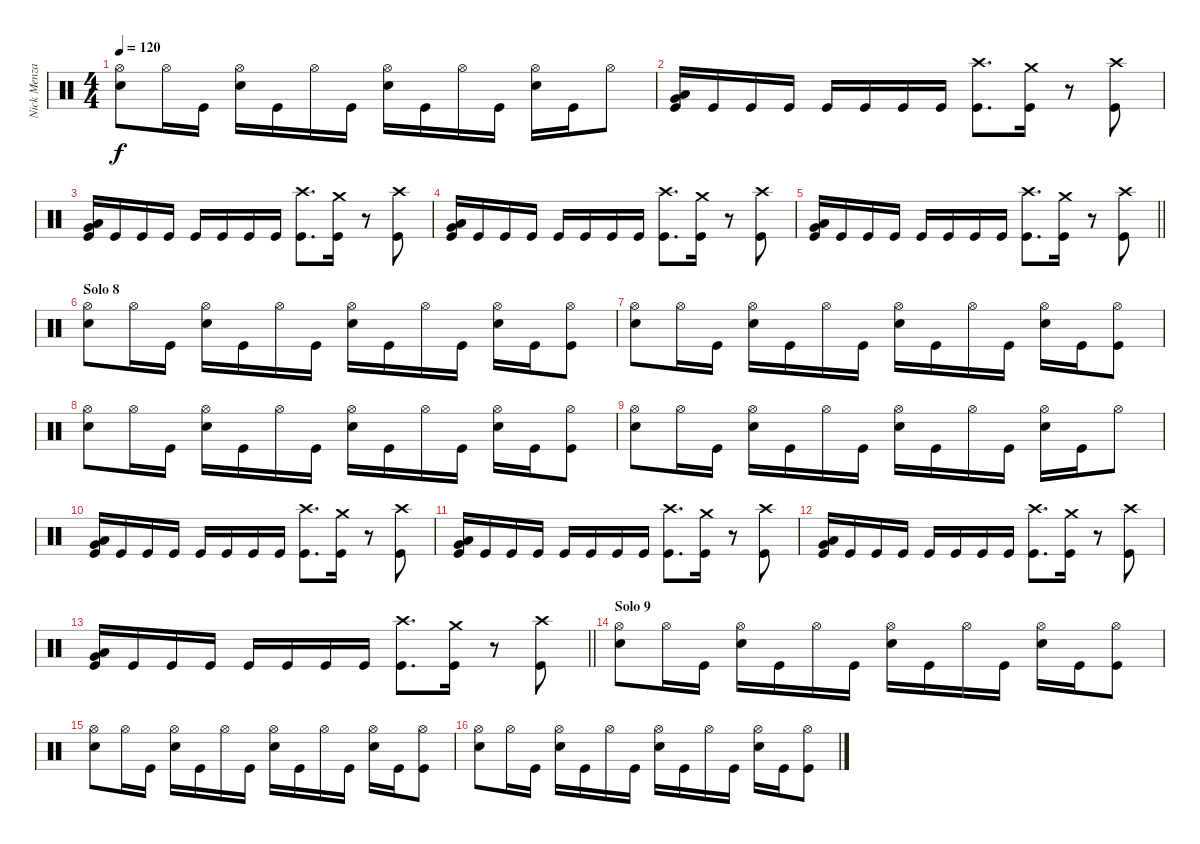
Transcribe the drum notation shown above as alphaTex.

\track ("Nick Menza" "Nick Menza") {instrument percussion}
\staff {score}
\articulation defaults
\ts (4 4)
\tempo 120
\clef neutral
\ks c
("Hi-Hat (open)" "Snare (hit) 2").8{dy f} "Hi-Hat (open)".16 "Kick (hit)".16 ("Hi-Hat (open)" "Snare (hit) 2").16 "Kick (hit)".16 "Hi-Hat (open)".16 "Kick (hit)".16 ("Hi-Hat (open)" "Snare (hit) 2").16 "Kick (hit)".16 "Hi-Hat (open)".16 "Kick (hit)".16 ("Hi-Hat (open)" "Snare (hit) 2").16 "Kick (hit)".16 "Hi-Hat (open)".8 |
("Very Low Tom (hit)" "Low Floor Tom (hit)" "Kick (hit)").16 "Kick (hit)".16 "Kick (hit)".16 "Kick (hit)".16 "Kick (hit)".16 "Kick (hit)".16 "Kick (hit)".16 "Kick (hit)".16 ("Crash high (hit)" "Kick (hit)").8{d} ("Crash medium (hit)" "Kick (hit)").16 r.8 ("Crash high (hit)" "Kick (hit)").8 |
("Very Low Tom (hit)" "Low Floor Tom (hit)" "Kick (hit)").16 "Kick (hit)".16 "Kick (hit)".16 "Kick (hit)".16 "Kick (hit)".16 "Kick (hit)".16 "Kick (hit)".16 "Kick (hit)".16 ("Crash high (hit)" "Kick (hit)").8{d} ("Crash medium (hit)" "Kick (hit)").16 r.8 ("Crash high (hit)" "Kick (hit)").8 |
("Very Low Tom (hit)" "Low Floor Tom (hit)" "Kick (hit)").16 "Kick (hit)".16 "Kick (hit)".16 "Kick (hit)".16 "Kick (hit)".16 "Kick (hit)".16 "Kick (hit)".16 "Kick (hit)".16 ("Crash high (hit)" "Kick (hit)").8{d} ("Crash medium (hit)" "Kick (hit)").16 r.8 ("Crash high (hit)" "Kick (hit)").8 |
\barLineRight lightlight
("Very Low Tom (hit)" "Low Floor Tom (hit)" "Kick (hit)").16 "Kick (hit)".16 "Kick (hit)".16 "Kick (hit)".16 "Kick (hit)".16 "Kick (hit)".16 "Kick (hit)".16 "Kick (hit)".16 ("Crash high (hit)" "Kick (hit)").8{d} ("Crash medium (hit)" "Kick (hit)").16 r.8 ("Crash high (hit)" "Kick (hit)").8 |
\section ("" "Solo 8")
("Hi-Hat (open)" "Snare (hit) 2").8 "Hi-Hat (open)".16 "Kick (hit)".16 ("Hi-Hat (open)" "Snare (hit) 2").16 "Kick (hit)".16 "Hi-Hat (open)".16 "Kick (hit)".16 ("Hi-Hat (open)" "Snare (hit) 2").16 "Kick (hit)".16 "Hi-Hat (open)".16 "Kick (hit)".16 ("Hi-Hat (open)" "Snare (hit) 2").16 "Kick (hit)".16 ("Hi-Hat (open)" "Kick (hit)").8 |
("Hi-Hat (open)" "Snare (hit) 2").8 "Hi-Hat (open)".16 "Kick (hit)".16 ("Hi-Hat (open)" "Snare (hit) 2").16 "Kick (hit)".16 "Hi-Hat (open)".16 "Kick (hit)".16 ("Hi-Hat (open)" "Snare (hit) 2").16 "Kick (hit)".16 "Hi-Hat (open)".16 "Kick (hit)".16 ("Hi-Hat (open)" "Snare (hit) 2").16 "Kick (hit)".16 ("Hi-Hat (open)" "Kick (hit)").8 |
("Hi-Hat (open)" "Snare (hit) 2").8 "Hi-Hat (open)".16 "Kick (hit)".16 ("Hi-Hat (open)" "Snare (hit) 2").16 "Kick (hit)".16 "Hi-Hat (open)".16 "Kick (hit)".16 ("Hi-Hat (open)" "Snare (hit) 2").16 "Kick (hit)".16 "Hi-Hat (open)".16 "Kick (hit)".16 ("Hi-Hat (open)" "Snare (hit) 2").16 "Kick (hit)".16 ("Hi-Hat (open)" "Kick (hit)").8 |
("Hi-Hat (open)" "Snare (hit) 2").8 "Hi-Hat (open)".16 "Kick (hit)".16 ("Hi-Hat (open)" "Snare (hit) 2").16 "Kick (hit)".16 "Hi-Hat (open)".16 "Kick (hit)".16 ("Hi-Hat (open)" "Snare (hit) 2").16 "Kick (hit)".16 "Hi-Hat (open)".16 "Kick (hit)".16 ("Hi-Hat (open)" "Snare (hit) 2").16 "Kick (hit)".16 "Hi-Hat (open)".8 |
("Very Low Tom (hit)" "Low Floor Tom (hit)" "Kick (hit)").16 "Kick (hit)".16 "Kick (hit)".16 "Kick (hit)".16 "Kick (hit)".16 "Kick (hit)".16 "Kick (hit)".16 "Kick (hit)".16 ("Crash high (hit)" "Kick (hit)").8{d} ("Crash medium (hit)" "Kick (hit)").16 r.8 ("Crash high (hit)" "Kick (hit)").8 |
("Very Low Tom (hit)" "Low Floor Tom (hit)" "Kick (hit)").16 "Kick (hit)".16 "Kick (hit)".16 "Kick (hit)".16 "Kick (hit)".16 "Kick (hit)".16 "Kick (hit)".16 "Kick (hit)".16 ("Crash high (hit)" "Kick (hit)").8{d} ("Crash medium (hit)" "Kick (hit)").16 r.8 ("Crash high (hit)" "Kick (hit)").8 |
("Very Low Tom (hit)" "Low Floor Tom (hit)" "Kick (hit)").16 "Kick (hit)".16 "Kick (hit)".16 "Kick (hit)".16 "Kick (hit)".16 "Kick (hit)".16 "Kick (hit)".16 "Kick (hit)".16 ("Crash high (hit)" "Kick (hit)").8{d} ("Crash medium (hit)" "Kick (hit)").16 r.8 ("Crash high (hit)" "Kick (hit)").8 |
\barLineRight lightlight
("Very Low Tom (hit)" "Low Floor Tom (hit)" "Kick (hit)").16 "Kick (hit)".16 "Kick (hit)".16 "Kick (hit)".16 "Kick (hit)".16 "Kick (hit)".16 "Kick (hit)".16 "Kick (hit)".16 ("Crash high (hit)" "Kick (hit)").8{d} ("Crash medium (hit)" "Kick (hit)").16 r.8 ("Crash high (hit)" "Kick (hit)").8 |
\section ("" "Solo 9")
("Hi-Hat (open)" "Snare (hit) 2").8 "Hi-Hat (open)".16 "Kick (hit)".16 ("Hi-Hat (open)" "Snare (hit) 2").16 "Kick (hit)".16 "Hi-Hat (open)".16 "Kick (hit)".16 ("Hi-Hat (open)" "Snare (hit) 2").16 "Kick (hit)".16 "Hi-Hat (open)".16 "Kick (hit)".16 ("Hi-Hat (open)" "Snare (hit) 2").16 "Kick (hit)".16 ("Hi-Hat (open)" "Kick (hit)").8 |
("Hi-Hat (open)" "Snare (hit) 2").8 "Hi-Hat (open)".16 "Kick (hit)".16 ("Hi-Hat (open)" "Snare (hit) 2").16 "Kick (hit)".16 "Hi-Hat (open)".16 "Kick (hit)".16 ("Hi-Hat (open)" "Snare (hit) 2").16 "Kick (hit)".16 "Hi-Hat (open)".16 "Kick (hit)".16 ("Hi-Hat (open)" "Snare (hit) 2").16 "Kick (hit)".16 ("Hi-Hat (open)" "Kick (hit)").8 |
("Hi-Hat (open)" "Snare (hit) 2").8 "Hi-Hat (open)".16 "Kick (hit)".16 ("Hi-Hat (open)" "Snare (hit) 2").16 "Kick (hit)".16 "Hi-Hat (open)".16 "Kick (hit)".16 ("Hi-Hat (open)" "Snare (hit) 2").16 "Kick (hit)".16 "Hi-Hat (open)".16 "Kick (hit)".16 ("Hi-Hat (open)" "Snare (hit) 2").16 "Kick (hit)".16 ("Hi-Hat (open)" "Kick (hit)").8
